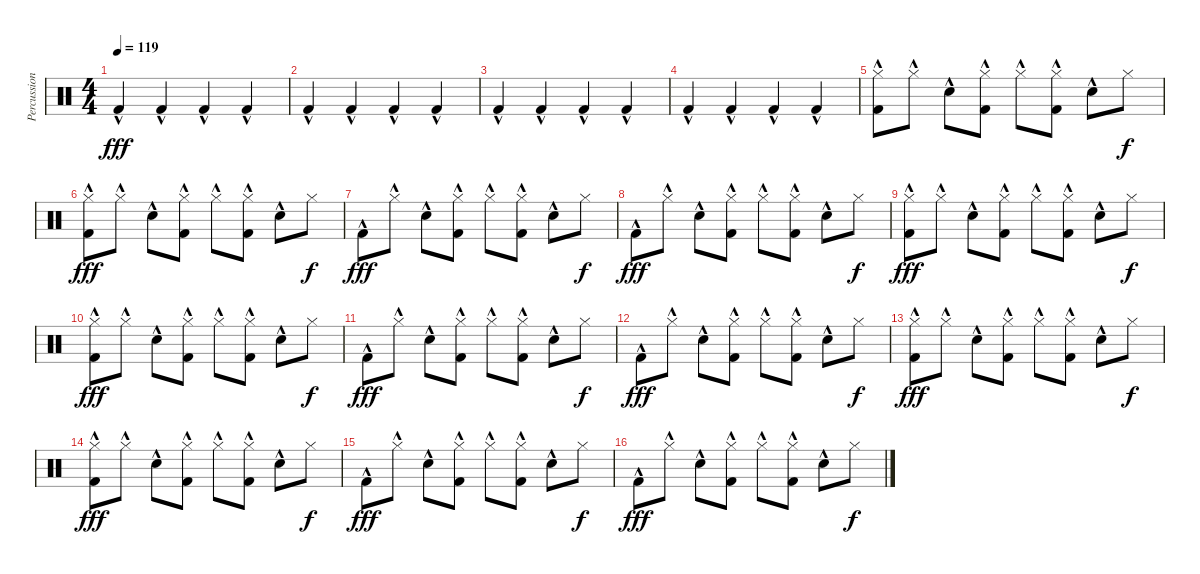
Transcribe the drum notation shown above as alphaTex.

\track ("Percussion" "Percussion") {instrument percussion}
\staff {score}
\articulation defaults
\ts (4 4)
\tempo 119
\clef neutral
\ks c "Kick (hit) 2"{hac}.4{dy fff} "Kick (hit) 2"{hac}.4 "Kick (hit) 2"{hac}.4 "Kick (hit) 2"{hac}.4
|
"Kick (hit) 2"{hac}.4 "Kick (hit) 2"{hac}.4 "Kick (hit) 2"{hac}.4 "Kick (hit) 2"{hac}.4 |
"Kick (hit) 2"{hac}.4 "Kick (hit) 2"{hac}.4 "Kick (hit) 2"{hac}.4 "Kick (hit) 2"{hac}.4 |
"Kick (hit) 2"{hac}.4 "Kick (hit) 2"{hac}.4 "Kick (hit) 2"{hac}.4 "Kick (hit) 2"{hac}.4 |
("Hi-Hat (closed)" "Kick (hit) 2"{hac}).8 "Hi-Hat (closed)"{hac}.8 "Electric Snare (hit)"{hac}.8 ("Hi-Hat (closed)"{hac} "Kick (hit) 2"{hac}).8 "Hi-Hat (closed)"{hac}.8 ("Hi-Hat (closed)"{hac} "Kick (hit) 2"{hac}).8 "Electric Snare (hit)"{hac}.8 "Hi-Hat (closed)".8{dy f} |
("Hi-Hat (closed)" "Kick (hit) 2"{hac}).8{dy fff} "Hi-Hat (closed)"{hac}.8 "Electric Snare (hit)"{hac}.8 ("Hi-Hat (closed)"{hac} "Kick (hit) 2"{hac}).8 "Hi-Hat (closed)"{hac}.8 ("Hi-Hat (closed)"{hac} "Kick (hit) 2"{hac}).8 "Electric Snare (hit)"{hac}.8 "Hi-Hat (closed)".8{dy f} |
"Kick (hit) 2"{hac}.8{dy fff} "Hi-Hat (closed)"{hac}.8 "Electric Snare (hit)"{hac}.8 ("Hi-Hat (closed)"{hac} "Kick (hit) 2"{hac}).8 "Hi-Hat (closed)"{hac}.8 ("Hi-Hat (closed)"{hac} "Kick (hit) 2"{hac}).8 "Electric Snare (hit)"{hac}.8 "Hi-Hat (closed)".8{dy f} |
"Kick (hit) 2"{hac}.8{dy fff} "Hi-Hat (closed)"{hac}.8 "Electric Snare (hit)"{hac}.8 ("Hi-Hat (closed)"{hac} "Kick (hit) 2"{hac}).8 "Hi-Hat (closed)"{hac}.8 ("Hi-Hat (closed)"{hac} "Kick (hit) 2"{hac}).8 "Electric Snare (hit)"{hac}.8 "Hi-Hat (closed)".8{dy f} |
("Hi-Hat (closed)" "Kick (hit) 2"{hac}).8{dy fff} "Hi-Hat (closed)"{hac}.8 "Electric Snare (hit)"{hac}.8 ("Hi-Hat (closed)"{hac} "Kick (hit) 2"{hac}).8 "Hi-Hat (closed)"{hac}.8 ("Hi-Hat (closed)"{hac} "Kick (hit) 2"{hac}).8 "Electric Snare (hit)"{hac}.8 "Hi-Hat (closed)".8{dy f} |
("Hi-Hat (closed)" "Kick (hit) 2"{hac}).8{dy fff} "Hi-Hat (closed)"{hac}.8 "Electric Snare (hit)"{hac}.8 ("Hi-Hat (closed)"{hac} "Kick (hit) 2"{hac}).8 "Hi-Hat (closed)"{hac}.8 ("Hi-Hat (closed)"{hac} "Kick (hit) 2"{hac}).8 "Electric Snare (hit)"{hac}.8 "Hi-Hat (closed)".8{dy f} |
"Kick (hit) 2"{hac}.8{dy fff} "Hi-Hat (closed)"{hac}.8 "Electric Snare (hit)"{hac}.8 ("Hi-Hat (closed)"{hac} "Kick (hit) 2"{hac}).8 "Hi-Hat (closed)"{hac}.8 ("Hi-Hat (closed)"{hac} "Kick (hit) 2"{hac}).8 "Electric Snare (hit)"{hac}.8 "Hi-Hat (closed)".8{dy f} |
"Kick (hit) 2"{hac}.8{dy fff} "Hi-Hat (closed)"{hac}.8 "Electric Snare (hit)"{hac}.8 ("Hi-Hat (closed)"{hac} "Kick (hit) 2"{hac}).8 "Hi-Hat (closed)"{hac}.8 ("Hi-Hat (closed)"{hac} "Kick (hit) 2"{hac}).8 "Electric Snare (hit)"{hac}.8 "Hi-Hat (closed)".8{dy f} |
("Hi-Hat (closed)" "Kick (hit) 2"{hac}).8{dy fff} "Hi-Hat (closed)"{hac}.8 "Electric Snare (hit)"{hac}.8 ("Hi-Hat (closed)"{hac} "Kick (hit) 2"{hac}).8 "Hi-Hat (closed)"{hac}.8 ("Hi-Hat (closed)"{hac} "Kick (hit) 2"{hac}).8 "Electric Snare (hit)"{hac}.8 "Hi-Hat (closed)".8{dy f} |
("Hi-Hat (closed)" "Kick (hit) 2"{hac}).8{dy fff} "Hi-Hat (closed)"{hac}.8 "Electric Snare (hit)"{hac}.8 ("Hi-Hat (closed)"{hac} "Kick (hit) 2"{hac}).8 "Hi-Hat (closed)"{hac}.8 ("Hi-Hat (closed)"{hac} "Kick (hit) 2"{hac}).8 "Electric Snare (hit)"{hac}.8 "Hi-Hat (closed)".8{dy f} |
"Kick (hit) 2"{hac}.8{dy fff} "Hi-Hat (closed)"{hac}.8 "Electric Snare (hit)"{hac}.8 ("Hi-Hat (closed)"{hac} "Kick (hit) 2"{hac}).8 "Hi-Hat (closed)"{hac}.8 ("Hi-Hat (closed)"{hac} "Kick (hit) 2"{hac}).8 "Electric Snare (hit)"{hac}.8 "Hi-Hat (closed)".8{dy f} |
"Kick (hit) 2"{hac}.8{dy fff} "Hi-Hat (closed)"{hac}.8 "Electric Snare (hit)"{hac}.8 ("Hi-Hat (closed)"{hac} "Kick (hit) 2"{hac}).8 "Hi-Hat (closed)"{hac}.8 ("Hi-Hat (closed)"{hac} "Kick (hit) 2"{hac}).8 "Electric Snare (hit)"{hac}.8 "Hi-Hat (closed)".8{dy f}
